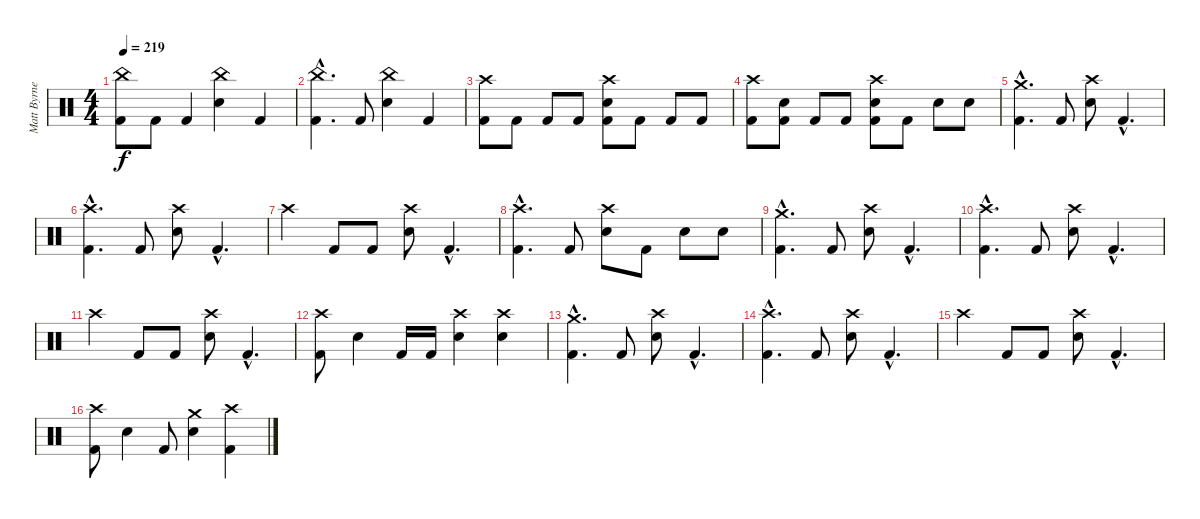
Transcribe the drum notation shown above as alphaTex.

\track ("Matt Byrne (Drums)" "Matt Byrne") {instrument percussion}
\staff {score}
\articulation defaults
\ts (4 4)
\tempo 219
\clef neutral
\ks c
("China (hit)" "Kick (hit) 2").8{dy f} "Kick (hit) 2".8 "Kick (hit) 2".4 ("China (hit)" "Snare (hit) 2").4 "Kick (hit) 2".4 |
("China (hit)"{hac} "Kick (hit) 2"{hac}).4{d} "Kick (hit) 2".8 ("China (hit)" "Snare (hit) 2").4 "Kick (hit) 2".4 |
("Crash high (hit)" "Kick (hit) 2").8 "Kick (hit) 2".8 "Kick (hit) 2".8 "Kick (hit) 2".8 ("Crash high (hit)" "Snare (hit) 2" "Kick (hit) 2").8 "Kick (hit) 2".8 "Kick (hit) 2".8 "Kick (hit) 2".8 |
("Crash high (hit)" "Kick (hit) 2").8 ("Snare (hit) 2" "Kick (hit) 2").8 "Kick (hit) 2".8 "Kick (hit) 2".8 ("Snare (hit) 2" "Crash high (hit)" "Kick (hit) 2").8 "Kick (hit) 2".8 "Snare (hit) 2".8 "Snare (hit) 2".8 |
("Crash medium (hit)"{hac} "Kick (hit) 2"{hac}).4{d} "Kick (hit) 2".8 ("Crash high (hit)" "Snare (hit) 2").8 "Kick (hit) 2"{hac}.4{d} |
("Crash high (hit)"{hac} "Kick (hit) 2"{hac}).4{d} "Kick (hit) 2".8 ("Crash high (hit)" "Snare (hit) 2").8 "Kick (hit) 2"{hac}.4{d} |
"Crash high (hit)".4 "Kick (hit) 2".8 "Kick (hit) 2".8 ("Crash high (hit)" "Snare (hit) 2").8 "Kick (hit) 2"{hac}.4{d} |
("Crash high (hit)"{hac} "Kick (hit) 2"{hac}).4{d} "Kick (hit) 2".8 ("Crash high (hit)" "Snare (hit) 2").8 "Kick (hit) 2".8 "Snare (hit) 2".8 "Snare (hit) 2".8 |
("Crash medium (hit)"{hac} "Kick (hit) 2"{hac}).4{d} "Kick (hit) 2".8 ("Crash high (hit)" "Snare (hit) 2").8 "Kick (hit) 2"{hac}.4{d} |
("Crash high (hit)"{hac} "Kick (hit) 2"{hac}).4{d} "Kick (hit) 2".8 ("Crash high (hit)" "Snare (hit) 2").8 "Kick (hit) 2"{hac}.4{d} |
"Crash high (hit)".4 "Kick (hit) 2".8 "Kick (hit) 2".8 ("Crash high (hit)" "Snare (hit) 2").8 "Kick (hit) 2"{hac}.4{d} |
("Crash high (hit)" "Kick (hit) 2").8 "Snare (hit) 2".4 "Kick (hit) 2".16 "Kick (hit) 2".16 ("Crash high (hit)" "Snare (hit) 2").4 ("Crash high (hit)" "Snare (hit) 2").4 |
("Crash medium (hit)"{hac} "Kick (hit) 2"{hac}).4{d} "Kick (hit) 2".8 ("Crash high (hit)" "Snare (hit) 2").8 "Kick (hit) 2"{hac}.4{d} |
("Crash high (hit)"{hac} "Kick (hit) 2"{hac}).4{d} "Kick (hit) 2".8 ("Crash high (hit)" "Snare (hit) 2").8 "Kick (hit) 2"{hac}.4{d} |
"Crash high (hit)".4 "Kick (hit) 2".8 "Kick (hit) 2".8 ("Crash high (hit)" "Snare (hit) 2").8 "Kick (hit) 2"{hac}.4{d} |
("Crash high (hit)" "Kick (hit) 2").8 "Snare (hit) 2".4 "Kick (hit) 2".8 ("Crash medium (hit)" "Snare (hit) 2").4 ("Crash high (hit)" "Kick (hit) 2").4
